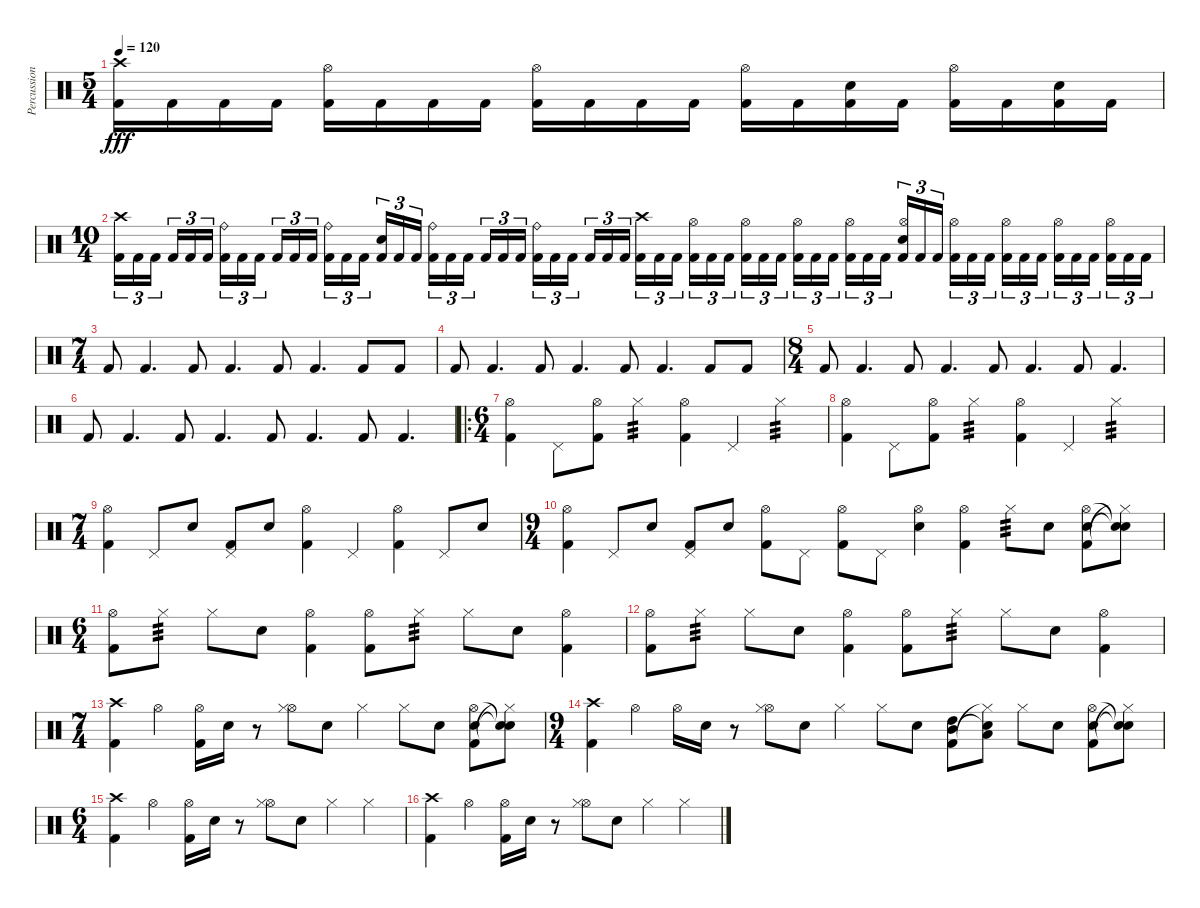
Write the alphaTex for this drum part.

\track ("Percussion" "Percussion") {instrument percussion}
\staff {score}
\articulation defaults
\ts (5 4)
\tempo 120
\clef neutral
\ks c
("Crash high (hit)" "Kick (hit) 2").16{dy fff} "Kick (hit) 2".16 "Kick (hit) 2".16 "Kick (hit) 2".16 ("Hi-Hat (open)" "Kick (hit) 2").16 "Kick (hit) 2".16 "Kick (hit) 2".16 "Kick (hit) 2".16 ("Hi-Hat (open)" "Kick (hit) 2").16 "Kick (hit) 2".16 "Kick (hit) 2".16 "Kick (hit) 2".16 ("Hi-Hat (open)" "Kick (hit) 2").16 "Kick (hit) 2".16 ("Electric Snare (hit)" "Kick (hit) 2").16 "Kick (hit) 2".16 ("Hi-Hat (open)" "Kick (hit) 2").16 "Kick (hit) 2".16 ("Electric Snare (hit)" "Kick (hit) 2").16 "Kick (hit) 2".16 |
\ts (10 4)
("Crash high (hit)" "Kick (hit) 2").16{tu (3 2)} "Kick (hit) 2".16{tu (3 2)} "Kick (hit) 2".16{tu (3 2) beam splitsecondary} "Kick (hit) 2".16{tu (3 2)} "Kick (hit) 2".16{tu (3 2)} "Kick (hit) 2".16{tu (3 2)} ("Ride (bell)" "Kick (hit) 2").16{tu (3 2)} "Kick (hit) 2".16{tu (3 2)} "Kick (hit) 2".16{tu (3 2) beam splitsecondary} "Kick (hit) 2".16{tu (3 2)} "Kick (hit) 2".16{tu (3 2)} "Kick (hit) 2".16{tu (3 2)} ("Ride (bell)" "Kick (hit) 2").16{tu (3 2)} "Kick (hit) 2".16{tu (3 2)} "Kick (hit) 2".16{tu (3 2) beam splitsecondary} ("Electric Snare (hit)" "Kick (hit) 2").16{tu (3 2)} "Kick (hit) 2".16{tu (3 2)} "Kick (hit) 2".16{tu (3 2)} ("Ride (bell)" "Kick (hit) 2").16{tu (3 2)} "Kick (hit) 2".16{tu (3 2)} "Kick (hit) 2".16{tu (3 2) beam splitsecondary} "Kick (hit) 2".16{tu (3 2)} "Kick (hit) 2".16{tu (3 2)} "Kick (hit) 2".16{tu (3 2)} ("Ride (bell)" "Kick (hit) 2").16{tu (3 2)} "Kick (hit) 2".16{tu (3 2)} "Kick (hit) 2".16{tu (3 2) beam splitsecondary} "Kick (hit) 2".16{tu (3 2)} "Kick (hit) 2".16{tu (3 2)} "Kick (hit) 2".16{tu (3 2)} ("Crash high (hit)" "Kick (hit) 2").16{tu (3 2)} "Kick (hit) 2".16{tu (3 2)} "Kick (hit) 2".16{tu (3 2) beam splitsecondary} ("Hi-Hat (open)" "Kick (hit) 2").16{tu (3 2)} "Kick (hit) 2".16{tu (3 2)} "Kick (hit) 2".16{tu (3 2)} ("Hi-Hat (open)" "Kick (hit) 2").16{tu (3 2)} "Kick (hit) 2".16{tu (3 2)} "Kick (hit) 2".16{tu (3 2) beam splitsecondary} ("Hi-Hat (open)" "Kick (hit) 2").16{tu (3 2)} "Kick (hit) 2".16{tu (3 2)} "Kick (hit) 2".16{tu (3 2)} ("Hi-Hat (open)" "Kick (hit) 2").16{tu (3 2)} "Kick (hit) 2".16{tu (3 2)} "Kick (hit) 2".16{tu (3 2) beam splitsecondary} ("Electric Snare (hit)" "Hi-Hat (open)" "Kick (hit) 2").16{tu (3 2)} "Kick (hit) 2".16{tu (3 2)} "Kick (hit) 2".16{tu (3 2)} ("Hi-Hat (open)" "Kick (hit) 2").16{tu (3 2)} "Kick (hit) 2".16{tu (3 2)} "Kick (hit) 2".16{tu (3 2) beam splitsecondary} ("Hi-Hat (open)" "Kick (hit) 2").16{tu (3 2)} "Kick (hit) 2".16{tu (3 2)} "Kick (hit) 2".16{tu (3 2)} ("Hi-Hat (open)" "Kick (hit) 2").16{tu (3 2)} "Kick (hit) 2".16{tu (3 2)} "Kick (hit) 2".16{tu (3 2) beam splitsecondary} ("Hi-Hat (open)" "Kick (hit) 2").16{tu (3 2)} "Kick (hit) 2".16{tu (3 2)} "Kick (hit) 2".16{tu (3 2)} |
\ts (7 4)
"Kick (hit) 2".8 "Kick (hit) 2".4{d} "Kick (hit) 2".8 "Kick (hit) 2".4{d} "Kick (hit) 2".8 "Kick (hit) 2".4{d} "Kick (hit) 2".8 "Kick (hit) 2".8 |
"Kick (hit) 2".8 "Kick (hit) 2".4{d} "Kick (hit) 2".8 "Kick (hit) 2".4{d} "Kick (hit) 2".8 "Kick (hit) 2".4{d} "Kick (hit) 2".8 "Kick (hit) 2".8 |
\ts (8 4)
"Kick (hit) 2".8 "Kick (hit) 2".4{d} "Kick (hit) 2".8 "Kick (hit) 2".4{d} "Kick (hit) 2".8 "Kick (hit) 2".4{d} "Kick (hit) 2".8 "Kick (hit) 2".4{d} |
"Kick (hit) 2".8 "Kick (hit) 2".4{d} "Kick (hit) 2".8 "Kick (hit) 2".4{d} "Kick (hit) 2".8 "Kick (hit) 2".4{d} "Kick (hit) 2".8 "Kick (hit) 2".4{d} |
\ro
\ts (6 4)
("Hi-Hat (open)" "Kick (hit) 2").4{volume 12} "Pedal Hi-Hat (hit)".8 ("Hi-Hat (open)" "Kick (hit) 2").8 "Hi-Hat (closed)".4{tp 3} ("Hi-Hat (open)" "Kick (hit) 2").4 "Pedal Hi-Hat (hit)".4 "Hi-Hat (closed)".4{tp 3} |
("Hi-Hat (open)" "Kick (hit) 2").4 "Pedal Hi-Hat (hit)".8 ("Hi-Hat (open)" "Kick (hit) 2").8 "Hi-Hat (closed)".4{tp 3} ("Hi-Hat (open)" "Kick (hit) 2").4 "Pedal Hi-Hat (hit)".4 "Hi-Hat (closed)".4{tp 3} |
\ts (7 4)
("Hi-Hat (open)" "Kick (hit) 2").4 "Pedal Hi-Hat (hit)".8 "Electric Snare (hit)".8 ("Kick (hit) 2" "Pedal Hi-Hat (hit)").8 "Electric Snare (hit)".8 ("Hi-Hat (open)" "Kick (hit) 2").4 "Pedal Hi-Hat (hit)".4 ("Hi-Hat (open)" "Kick (hit) 2").4 "Pedal Hi-Hat (hit)".8 "Electric Snare (hit)".8 |
\ts (9 4)
("Hi-Hat (open)" "Kick (hit) 2").4 "Pedal Hi-Hat (hit)".8 "Electric Snare (hit)".8 ("Kick (hit) 2" "Pedal Hi-Hat (hit)").8 "Electric Snare (hit)".8 ("Hi-Hat (open)" "Kick (hit) 2").8 "Pedal Hi-Hat (hit)".8 ("Hi-Hat (open)" "Kick (hit) 2").8 "Pedal Hi-Hat (hit)".8 ("Electric Snare (hit)" "Hi-Hat (open)").4 ("Hi-Hat (open)" "Kick (hit) 2").4 "Hi-Hat (closed)".8{tp 3} "Electric Snare (hit)".8 ("Electric Snare (hit)" "Hi-Hat (open)" "Kick (hit) 2").8 ("Snare (hit)"{t} "Snare (hit)"{t} "Hi-Hat (closed)"{t}).8 |
\ts (6 4)
("Kick (hit) 2" "Hi-Hat (open)").8 "Hi-Hat (closed)".8{tp 3} "Hi-Hat (closed)".8 "Electric Snare (hit)".8 ("Kick (hit) 2" "Hi-Hat (open)").4 ("Kick (hit) 2" "Hi-Hat (open)").8 "Hi-Hat (closed)".8{tp 3} "Hi-Hat (closed)".8 "Electric Snare (hit)".8 ("Kick (hit) 2" "Hi-Hat (open)").4 |
("Kick (hit) 2" "Hi-Hat (open)").8 "Hi-Hat (closed)".8{tp 3} "Hi-Hat (closed)".8 "Electric Snare (hit)".8 ("Kick (hit) 2" "Hi-Hat (open)").4 ("Kick (hit) 2" "Hi-Hat (open)").8 "Hi-Hat (closed)".8{tp 3} "Hi-Hat (closed)".8 "Electric Snare (hit)".8 ("Kick (hit) 2" "Hi-Hat (open)").4 |
\ts (7 4)
("Kick (hit) 2" "Crash high (hit)").4 "Hi-Hat (open)".4 ("Kick (hit) 2" "Hi-Hat (open)").16 "Electric Snare (hit)".16 r.8 ("Hi-Hat (open)" "Hi-Hat (closed)").8 "Electric Snare (hit)".8 "Hi-Hat (closed)".4 "Hi-Hat (closed)".8 "Electric Snare (hit)".8 ("Electric Snare (hit)" "Hi-Hat (open)" "Kick (hit) 2").8 ("Snare (hit)"{t} "Snare (hit)"{t} "Hi-Hat (closed)"{t}).8 |
\ts (9 4)
("Kick (hit) 2" "Crash high (hit)").4 "Hi-Hat (open)".4 "Hi-Hat (open)".16 "Electric Snare (hit)".16 r.8 ("Hi-Hat (open)" "Hi-Hat (closed)").8 "Electric Snare (hit)".8 "Hi-Hat (closed)".4 "Hi-Hat (closed)".8 "Electric Snare (hit)".8 ("Mid Tom (hit)" "High Tom (hit)" "Kick (hit) 2").8 ("Snare (hit)"{t} "Low Tom (hit)" "Hi-Hat (closed)"{t}).8 "Hi-Hat (closed)".8 "Electric Snare (hit)".8 ("Electric Snare (hit)" "Hi-Hat (open)" "Kick (hit) 2").8 ("Snare (hit)"{t} "Snare (hit)"{t} "Hi-Hat (closed)"{t}).8 |
\ts (6 4)
("Kick (hit) 2" "Crash high (hit)").4 "Hi-Hat (open)".4 ("Kick (hit) 2" "Hi-Hat (open)").16 "Electric Snare (hit)".16 r.8 ("Hi-Hat (open)" "Hi-Hat (closed)").8 "Electric Snare (hit)".8 "Hi-Hat (closed)".4 "Hi-Hat (closed)".4 |
("Kick (hit) 2" "Crash high (hit)").4 "Hi-Hat (open)".4 ("Kick (hit) 2" "Hi-Hat (open)").16 "Electric Snare (hit)".16 r.8 ("Hi-Hat (open)" "Hi-Hat (closed)").8 "Electric Snare (hit)".8 "Hi-Hat (closed)".4 "Hi-Hat (closed)".4
